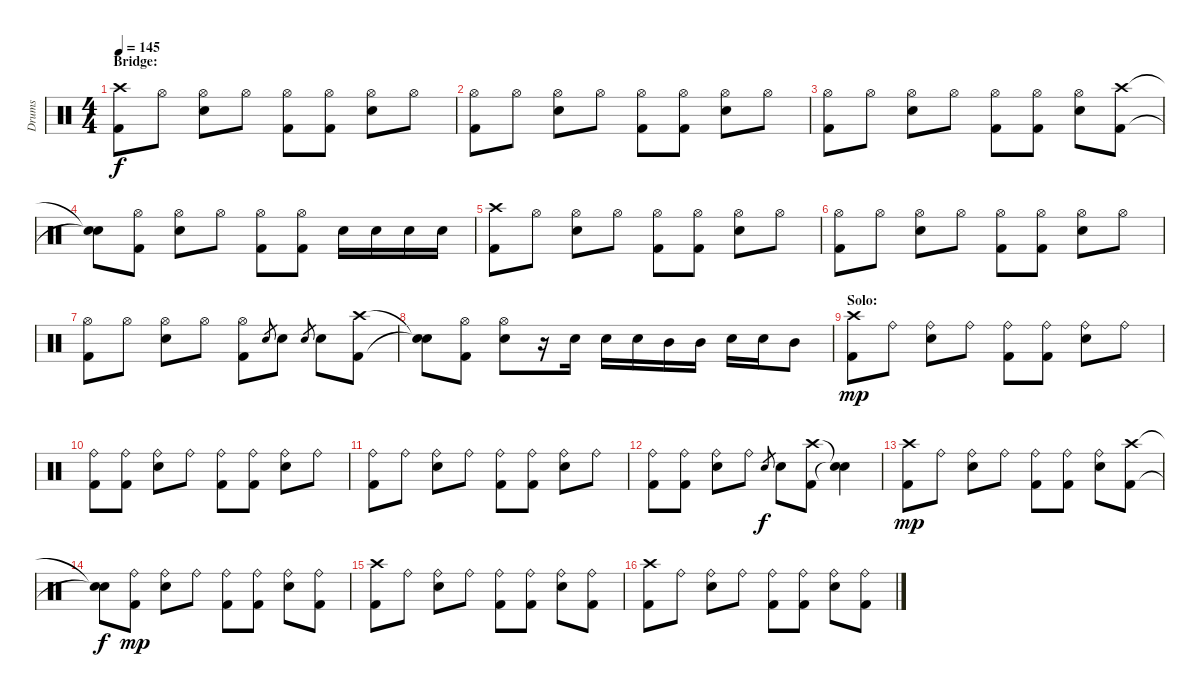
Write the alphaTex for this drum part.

\track ("Drums" "Drums") {instrument percussion}
\staff {score}
\articulation defaults
\ts (4 4)
\section ("" "Bridge:")
\tempo 145
\clef neutral
\ks c
("Crash high (hit)" "Kick (hit) 2").8{dy f} "Hi-Hat (open)".8 ("Hi-Hat (open)" "Electric Snare (hit)").8 "Hi-Hat (open)".8 ("Hi-Hat (open)" "Kick (hit) 2").8 ("Hi-Hat (open)" "Kick (hit) 2").8 ("Hi-Hat (open)" "Electric Snare (hit)").8 "Hi-Hat (open)".8 |
("Hi-Hat (open)" "Kick (hit) 2").8 "Hi-Hat (open)".8 ("Hi-Hat (open)" "Electric Snare (hit)").8 "Hi-Hat (open)".8 ("Hi-Hat (open)" "Kick (hit) 2").8 ("Hi-Hat (open)" "Kick (hit) 2").8 ("Hi-Hat (open)" "Electric Snare (hit)").8 "Hi-Hat (open)".8 |
("Hi-Hat (open)" "Kick (hit) 2").8 "Hi-Hat (open)".8 ("Hi-Hat (open)" "Electric Snare (hit)").8 "Hi-Hat (open)".8 ("Hi-Hat (open)" "Kick (hit) 2").8 ("Hi-Hat (open)" "Kick (hit) 2").8 ("Hi-Hat (open)" "Electric Snare (hit)").8 ("Crash high (hit)" "Kick (hit) 2").8 |
("Snare (hit)"{t} "Snare (hit)"{t}).8 ("Hi-Hat (open)" "Kick (hit) 2").8 ("Hi-Hat (open)" "Electric Snare (hit)").8 "Hi-Hat (open)".8 ("Hi-Hat (open)" "Kick (hit) 2").8 ("Hi-Hat (open)" "Kick (hit) 2").8 "Electric Snare (hit)".16 "Electric Snare (hit)".16 "Electric Snare (hit)".16 "Electric Snare (hit)".16 |
("Crash high (hit)" "Kick (hit) 2").8 "Hi-Hat (open)".8 ("Hi-Hat (open)" "Electric Snare (hit)").8 "Hi-Hat (open)".8 ("Hi-Hat (open)" "Kick (hit) 2").8 ("Hi-Hat (open)" "Kick (hit) 2").8 ("Hi-Hat (open)" "Electric Snare (hit)").8 "Hi-Hat (open)".8 |
("Hi-Hat (open)" "Kick (hit) 2").8 "Hi-Hat (open)".8 ("Hi-Hat (open)" "Electric Snare (hit)").8 "Hi-Hat (open)".8 ("Hi-Hat (open)" "Kick (hit) 2").8 ("Hi-Hat (open)" "Kick (hit) 2").8 ("Hi-Hat (open)" "Electric Snare (hit)").8 "Hi-Hat (open)".8 |
("Hi-Hat (open)" "Kick (hit) 2").8 "Hi-Hat (open)".8 ("Hi-Hat (open)" "Electric Snare (hit)").8 "Hi-Hat (open)".8 ("Hi-Hat (open)" "Kick (hit) 2").8 "Electric Snare (hit)".8{gr} "Electric Snare (hit)".8 "Electric Snare (hit)".8{gr} "Electric Snare (hit)".8 ("Crash high (hit)" "Kick (hit) 2").8 |
("Snare (hit)"{t} "Snare (hit)"{t}).8 ("Hi-Hat (open)" "Kick (hit) 2").8 ("Hi-Hat (open)" "Electric Snare (hit)").8 r.16 "Electric Snare (hit)".16 "Electric Snare (hit)".16 "Electric Snare (hit)".16 "Mid Tom (hit)".16 "Mid Tom (hit)".16 "Electric Snare (hit)".16 "Electric Snare (hit)".16 "Mid Tom (hit)".8 |
\section ("" "Solo:")
("Crash high (hit)" "Kick (hit) 2").8{dy mp} "Ride (bell)".8 ("Ride (bell)" "Electric Snare (hit)").8 "Ride (bell)".8 ("Ride (bell)" "Kick (hit) 2").8 ("Ride (bell)" "Kick (hit) 2").8 ("Ride (bell)" "Electric Snare (hit)").8 "Ride (bell)".8 |
("Ride (bell)" "Kick (hit) 2").8 ("Ride (bell)" "Kick (hit) 2").8 ("Ride (bell)" "Electric Snare (hit)").8 "Ride (bell)".8 ("Ride (bell)" "Kick (hit) 2").8 ("Ride (bell)" "Kick (hit) 2").8 ("Ride (bell)" "Electric Snare (hit)").8 "Ride (bell)".8 |
("Ride (bell)" "Kick (hit) 2").8 "Ride (bell)".8 ("Ride (bell)" "Electric Snare (hit)").8 "Ride (bell)".8 ("Ride (bell)" "Kick (hit) 2").8 ("Ride (bell)" "Kick (hit) 2").8 ("Ride (bell)" "Electric Snare (hit)").8 "Ride (bell)".8 |
("Ride (bell)" "Kick (hit) 2").8 ("Ride (bell)" "Kick (hit) 2").8 ("Ride (bell)" "Electric Snare (hit)").8 "Ride (bell)".8 "Electric Snare (hit)".8{gr dy f} "Electric Snare (hit)".8 ("Crash high (hit)" "Kick (hit) 2").8 ("Snare (hit)"{t} "Snare (hit)"{t}).4 |
("Crash high (hit)" "Kick (hit) 2").8{dy mp} "Ride (bell)".8 ("Ride (bell)" "Electric Snare (hit)").8 "Ride (bell)".8 ("Ride (bell)" "Kick (hit) 2").8 ("Ride (bell)" "Kick (hit) 2").8 ("Ride (bell)" "Electric Snare (hit)").8 ("Crash high (hit)" "Kick (hit) 2").8 |
("Snare (hit)"{t} "Snare (hit)"{t}).8{dy f} ("Ride (bell)" "Kick (hit) 2").8{dy mp} ("Ride (bell)" "Electric Snare (hit)").8 "Ride (bell)".8 ("Ride (bell)" "Kick (hit) 2").8 ("Ride (bell)" "Kick (hit) 2").8 ("Ride (bell)" "Electric Snare (hit)").8 ("Ride (bell)" "Kick (hit) 2").8 |
("Crash high (hit)" "Kick (hit) 2").8 "Ride (bell)".8 ("Ride (bell)" "Electric Snare (hit)").8 "Ride (bell)".8 ("Ride (bell)" "Kick (hit) 2").8 ("Ride (bell)" "Kick (hit) 2").8 ("Ride (bell)" "Electric Snare (hit)").8 ("Ride (bell)" "Kick (hit) 2").8 |
("Crash high (hit)" "Kick (hit) 2").8 "Ride (bell)".8 ("Ride (bell)" "Electric Snare (hit)").8 "Ride (bell)".8 ("Ride (bell)" "Kick (hit) 2").8 ("Ride (bell)" "Kick (hit) 2").8 ("Ride (bell)" "Electric Snare (hit)").8 ("Ride (bell)" "Kick (hit) 2").8
